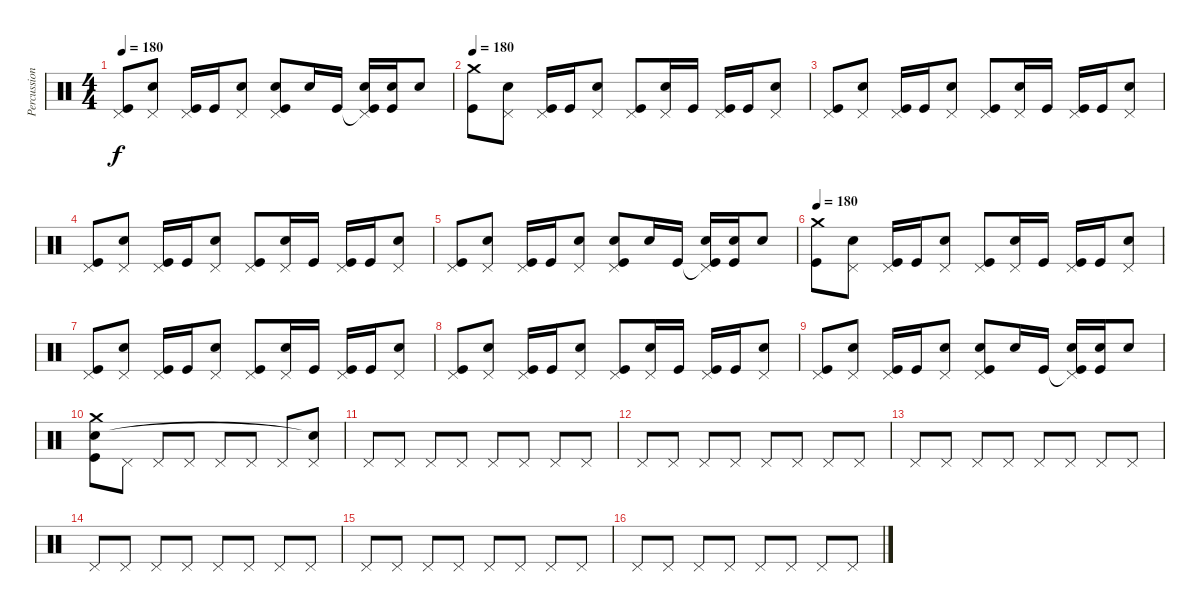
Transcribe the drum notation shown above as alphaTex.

\track ("Percussion" "Percussion") {instrument percussion}
\staff {score}
\articulation defaults
\ts (4 4)
\tempo 180
\clef neutral
\ks c
("Pedal Hi-Hat (hit)" "Kick (hit)").8{dy f} ("Pedal Hi-Hat (hit)" "Snare (hit) 2").8 ("Pedal Hi-Hat (hit)" "Kick (hit)").16 "Kick (hit)".16 ("Pedal Hi-Hat (hit)" "Snare (hit) 2").8 ("Pedal Hi-Hat (hit)" "Snare (hit) 2" "Kick (hit)").8 "Snare (hit) 2".16 "Kick (hit)".16 ("Pedal Hi-Hat (hit)"{t} "Snare (hit) 2" "Kick (hit)").16 ("Snare (hit) 2" "Kick (hit)").16 "Snare (hit) 2".8 |
\tempo 180
("Crash medium (hit)" "Kick (hit)").8 ("Pedal Hi-Hat (hit)" "Snare (hit) 2").8 ("Pedal Hi-Hat (hit)" "Kick (hit)").16 "Kick (hit)".16 ("Pedal Hi-Hat (hit)" "Snare (hit) 2").8 ("Pedal Hi-Hat (hit)" "Kick (hit)").8 ("Pedal Hi-Hat (hit)" "Snare (hit) 2").16 "Kick (hit)".16 ("Pedal Hi-Hat (hit)" "Kick (hit)").16 "Kick (hit)".16 ("Pedal Hi-Hat (hit)" "Snare (hit) 2").8 |
("Pedal Hi-Hat (hit)" "Kick (hit)").8 ("Pedal Hi-Hat (hit)" "Snare (hit) 2").8 ("Pedal Hi-Hat (hit)" "Kick (hit)").16 "Kick (hit)".16 ("Pedal Hi-Hat (hit)" "Snare (hit) 2").8 ("Pedal Hi-Hat (hit)" "Kick (hit)").8 ("Pedal Hi-Hat (hit)" "Snare (hit) 2").16 "Kick (hit)".16 ("Pedal Hi-Hat (hit)" "Kick (hit)").16 "Kick (hit)".16 ("Pedal Hi-Hat (hit)" "Snare (hit) 2").8 |
("Pedal Hi-Hat (hit)" "Kick (hit)").8 ("Pedal Hi-Hat (hit)" "Snare (hit) 2").8 ("Pedal Hi-Hat (hit)" "Kick (hit)").16 "Kick (hit)".16 ("Pedal Hi-Hat (hit)" "Snare (hit) 2").8 ("Pedal Hi-Hat (hit)" "Kick (hit)").8 ("Pedal Hi-Hat (hit)" "Snare (hit) 2").16 "Kick (hit)".16 ("Pedal Hi-Hat (hit)" "Kick (hit)").16 "Kick (hit)".16 ("Pedal Hi-Hat (hit)" "Snare (hit) 2").8 |
("Pedal Hi-Hat (hit)" "Kick (hit)").8 ("Pedal Hi-Hat (hit)" "Snare (hit) 2").8 ("Pedal Hi-Hat (hit)" "Kick (hit)").16 "Kick (hit)".16 ("Pedal Hi-Hat (hit)" "Snare (hit) 2").8 ("Pedal Hi-Hat (hit)" "Snare (hit) 2" "Kick (hit)").8 "Snare (hit) 2".16 "Kick (hit)".16 ("Pedal Hi-Hat (hit)"{t} "Snare (hit) 2" "Kick (hit)").16 ("Snare (hit) 2" "Kick (hit)").16 "Snare (hit) 2".8 |
\tempo 180
("Crash medium (hit)" "Kick (hit)").8 ("Pedal Hi-Hat (hit)" "Snare (hit) 2").8 ("Pedal Hi-Hat (hit)" "Kick (hit)").16 "Kick (hit)".16 ("Pedal Hi-Hat (hit)" "Snare (hit) 2").8 ("Pedal Hi-Hat (hit)" "Kick (hit)").8 ("Pedal Hi-Hat (hit)" "Snare (hit) 2").16 "Kick (hit)".16 ("Pedal Hi-Hat (hit)" "Kick (hit)").16 "Kick (hit)".16 ("Pedal Hi-Hat (hit)" "Snare (hit) 2").8 |
("Pedal Hi-Hat (hit)" "Kick (hit)").8 ("Pedal Hi-Hat (hit)" "Snare (hit) 2").8 ("Pedal Hi-Hat (hit)" "Kick (hit)").16 "Kick (hit)".16 ("Pedal Hi-Hat (hit)" "Snare (hit) 2").8 ("Pedal Hi-Hat (hit)" "Kick (hit)").8 ("Pedal Hi-Hat (hit)" "Snare (hit) 2").16 "Kick (hit)".16 ("Pedal Hi-Hat (hit)" "Kick (hit)").16 "Kick (hit)".16 ("Pedal Hi-Hat (hit)" "Snare (hit) 2").8 |
("Pedal Hi-Hat (hit)" "Kick (hit)").8 ("Pedal Hi-Hat (hit)" "Snare (hit) 2").8 ("Pedal Hi-Hat (hit)" "Kick (hit)").16 "Kick (hit)".16 ("Pedal Hi-Hat (hit)" "Snare (hit) 2").8 ("Pedal Hi-Hat (hit)" "Kick (hit)").8 ("Pedal Hi-Hat (hit)" "Snare (hit) 2").16 "Kick (hit)".16 ("Pedal Hi-Hat (hit)" "Kick (hit)").16 "Kick (hit)".16 ("Pedal Hi-Hat (hit)" "Snare (hit) 2").8 |
("Pedal Hi-Hat (hit)" "Kick (hit)").8 ("Pedal Hi-Hat (hit)" "Snare (hit) 2").8 ("Pedal Hi-Hat (hit)" "Kick (hit)").16 "Kick (hit)".16 ("Pedal Hi-Hat (hit)" "Snare (hit) 2").8 ("Pedal Hi-Hat (hit)" "Snare (hit) 2" "Kick (hit)").8 "Snare (hit) 2".16 "Kick (hit)".16 ("Pedal Hi-Hat (hit)"{t} "Snare (hit) 2" "Kick (hit)").16 ("Snare (hit) 2" "Kick (hit)").16 "Snare (hit) 2".8 |
("Crash medium (hit)" "Snare (hit) 2" "Kick (hit)").8 "Pedal Hi-Hat (hit)".8 "Pedal Hi-Hat (hit)".8 "Pedal Hi-Hat (hit)".8 "Pedal Hi-Hat (hit)".8 "Pedal Hi-Hat (hit)".8 "Pedal Hi-Hat (hit)".8 ("Pedal Hi-Hat (hit)" "Snare (hit)"{t}).8 |
"Pedal Hi-Hat (hit)".8 "Pedal Hi-Hat (hit)".8 "Pedal Hi-Hat (hit)".8 "Pedal Hi-Hat (hit)".8 "Pedal Hi-Hat (hit)".8 "Pedal Hi-Hat (hit)".8 "Pedal Hi-Hat (hit)".8 "Pedal Hi-Hat (hit)".8 |
"Pedal Hi-Hat (hit)".8 "Pedal Hi-Hat (hit)".8 "Pedal Hi-Hat (hit)".8 "Pedal Hi-Hat (hit)".8 "Pedal Hi-Hat (hit)".8 "Pedal Hi-Hat (hit)".8 "Pedal Hi-Hat (hit)".8 "Pedal Hi-Hat (hit)".8 |
"Pedal Hi-Hat (hit)".8 "Pedal Hi-Hat (hit)".8 "Pedal Hi-Hat (hit)".8 "Pedal Hi-Hat (hit)".8 "Pedal Hi-Hat (hit)".8 "Pedal Hi-Hat (hit)".8 "Pedal Hi-Hat (hit)".8 "Pedal Hi-Hat (hit)".8 |
"Pedal Hi-Hat (hit)".8 "Pedal Hi-Hat (hit)".8 "Pedal Hi-Hat (hit)".8 "Pedal Hi-Hat (hit)".8 "Pedal Hi-Hat (hit)".8 "Pedal Hi-Hat (hit)".8 "Pedal Hi-Hat (hit)".8 "Pedal Hi-Hat (hit)".8 |
"Pedal Hi-Hat (hit)".8 "Pedal Hi-Hat (hit)".8 "Pedal Hi-Hat (hit)".8 "Pedal Hi-Hat (hit)".8 "Pedal Hi-Hat (hit)".8 "Pedal Hi-Hat (hit)".8 "Pedal Hi-Hat (hit)".8 "Pedal Hi-Hat (hit)".8 |
"Pedal Hi-Hat (hit)".8 "Pedal Hi-Hat (hit)".8 "Pedal Hi-Hat (hit)".8 "Pedal Hi-Hat (hit)".8 "Pedal Hi-Hat (hit)".8 "Pedal Hi-Hat (hit)".8 "Pedal Hi-Hat (hit)".8 "Pedal Hi-Hat (hit)".8
